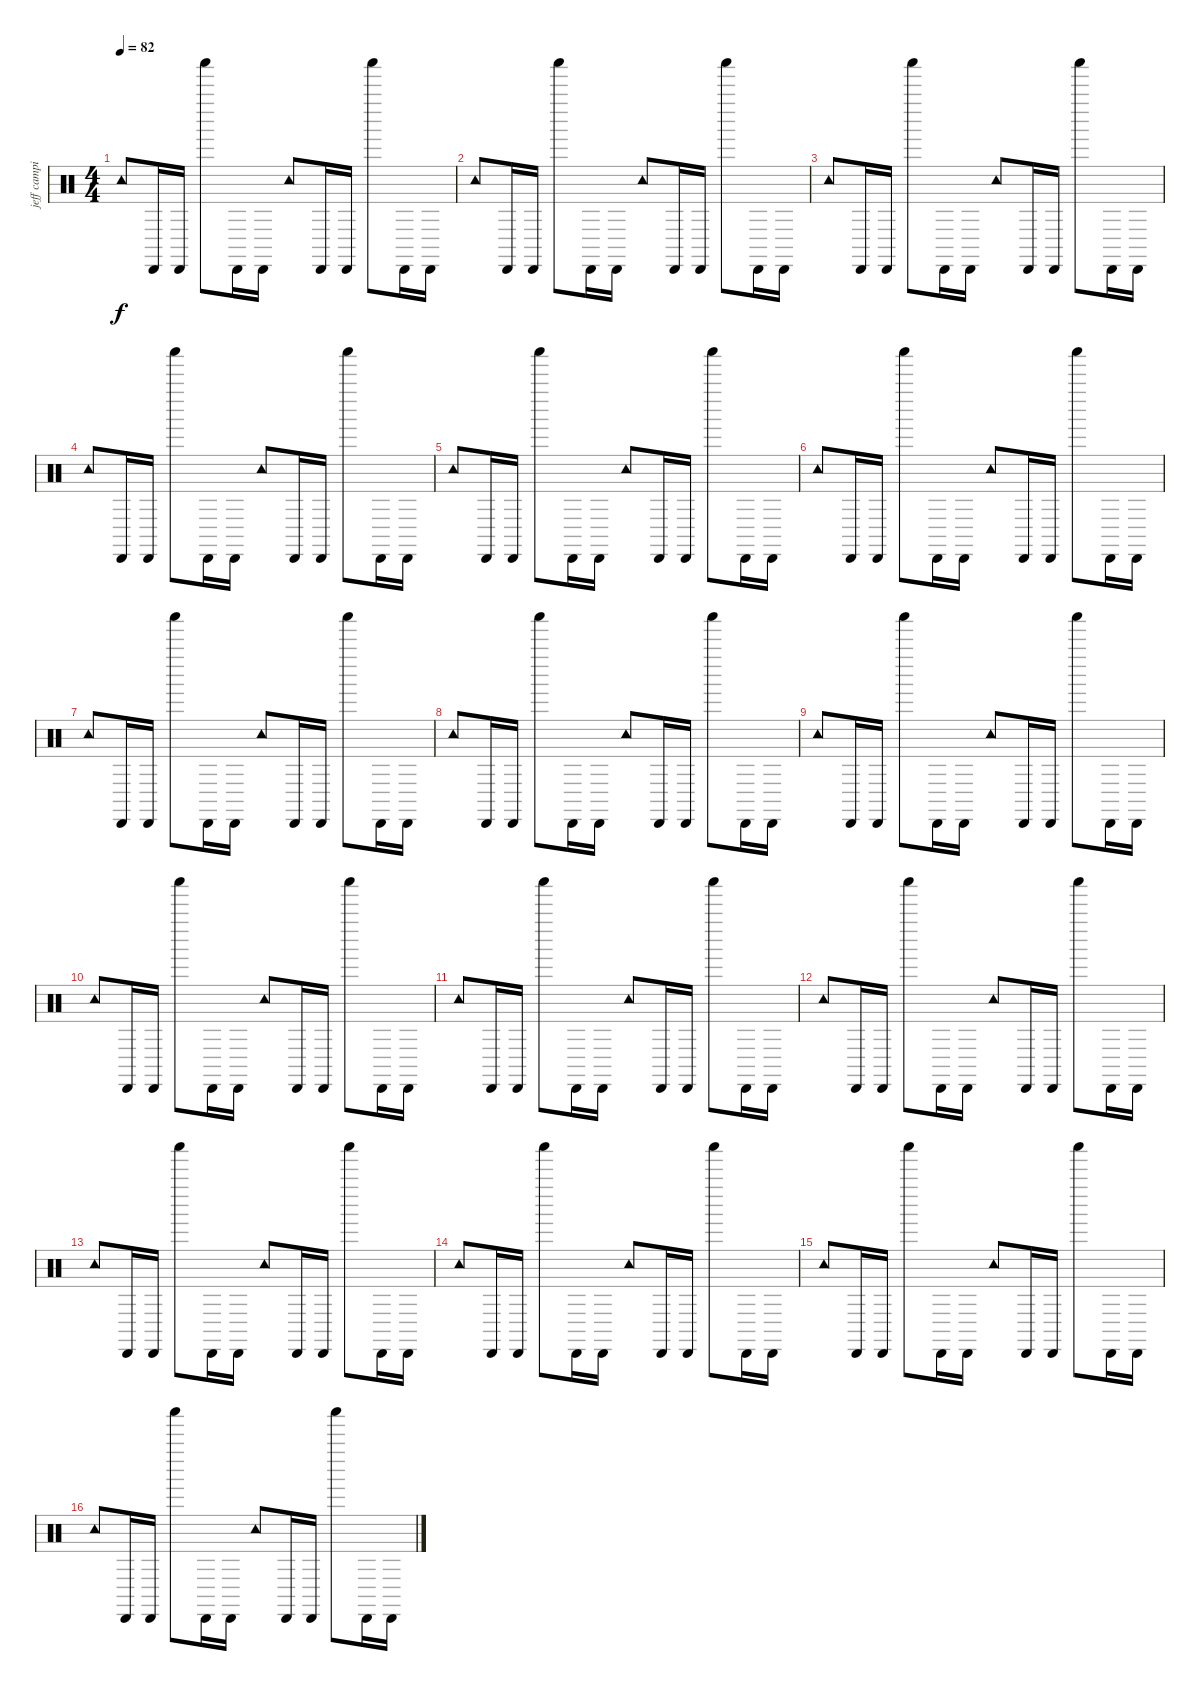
\track ("jeff campitelli" "jeff campi") {instrument percussion}
\staff {score}
\articulation defaults
\ts (4 4)
\tempo 82
\clef neutral
\ks c "Tambourine (hit)".8{dy f} "Cabasa (hit)".16 "Cabasa (hit)".16 "Shaker (hit)".8 "Cabasa (hit)".16 "Cabasa (hit)".16 "Tambourine (hit)".8 "Cabasa (hit)".16 "Cabasa (hit)".16 "Shaker (hit)".8 "Cabasa (hit)".16 "Cabasa (hit)".16
|
"Tambourine (hit)".8 "Cabasa (hit)".16 "Cabasa (hit)".16 "Shaker (hit)".8 "Cabasa (hit)".16 "Cabasa (hit)".16 "Tambourine (hit)".8 "Cabasa (hit)".16 "Cabasa (hit)".16 "Shaker (hit)".8 "Cabasa (hit)".16 "Cabasa (hit)".16 |
"Tambourine (hit)".8 "Cabasa (hit)".16 "Cabasa (hit)".16 "Shaker (hit)".8 "Cabasa (hit)".16 "Cabasa (hit)".16 "Tambourine (hit)".8 "Cabasa (hit)".16 "Cabasa (hit)".16 "Shaker (hit)".8 "Cabasa (hit)".16 "Cabasa (hit)".16 |
"Tambourine (hit)".8 "Cabasa (hit)".16 "Cabasa (hit)".16 "Shaker (hit)".8 "Cabasa (hit)".16 "Cabasa (hit)".16 "Tambourine (hit)".8 "Cabasa (hit)".16 "Cabasa (hit)".16 "Shaker (hit)".8 "Cabasa (hit)".16 "Cabasa (hit)".16 |
"Tambourine (hit)".8 "Cabasa (hit)".16 "Cabasa (hit)".16 "Shaker (hit)".8 "Cabasa (hit)".16 "Cabasa (hit)".16 "Tambourine (hit)".8 "Cabasa (hit)".16 "Cabasa (hit)".16 "Shaker (hit)".8 "Cabasa (hit)".16 "Cabasa (hit)".16 |
"Tambourine (hit)".8 "Cabasa (hit)".16 "Cabasa (hit)".16 "Shaker (hit)".8 "Cabasa (hit)".16 "Cabasa (hit)".16 "Tambourine (hit)".8 "Cabasa (hit)".16 "Cabasa (hit)".16 "Shaker (hit)".8 "Cabasa (hit)".16 "Cabasa (hit)".16 |
"Tambourine (hit)".8 "Cabasa (hit)".16 "Cabasa (hit)".16 "Shaker (hit)".8 "Cabasa (hit)".16 "Cabasa (hit)".16 "Tambourine (hit)".8 "Cabasa (hit)".16 "Cabasa (hit)".16 "Shaker (hit)".8 "Cabasa (hit)".16 "Cabasa (hit)".16 |
"Tambourine (hit)".8 "Cabasa (hit)".16 "Cabasa (hit)".16 "Shaker (hit)".8 "Cabasa (hit)".16 "Cabasa (hit)".16 "Tambourine (hit)".8 "Cabasa (hit)".16 "Cabasa (hit)".16 "Shaker (hit)".8 "Cabasa (hit)".16 "Cabasa (hit)".16 |
"Tambourine (hit)".8 "Cabasa (hit)".16 "Cabasa (hit)".16 "Shaker (hit)".8 "Cabasa (hit)".16 "Cabasa (hit)".16 "Tambourine (hit)".8 "Cabasa (hit)".16 "Cabasa (hit)".16 "Shaker (hit)".8 "Cabasa (hit)".16 "Cabasa (hit)".16 |
"Tambourine (hit)".8 "Cabasa (hit)".16 "Cabasa (hit)".16 "Shaker (hit)".8 "Cabasa (hit)".16 "Cabasa (hit)".16 "Tambourine (hit)".8 "Cabasa (hit)".16 "Cabasa (hit)".16 "Shaker (hit)".8 "Cabasa (hit)".16 "Cabasa (hit)".16 |
"Tambourine (hit)".8 "Cabasa (hit)".16 "Cabasa (hit)".16 "Shaker (hit)".8 "Cabasa (hit)".16 "Cabasa (hit)".16 "Tambourine (hit)".8 "Cabasa (hit)".16 "Cabasa (hit)".16 "Shaker (hit)".8 "Cabasa (hit)".16 "Cabasa (hit)".16 |
"Tambourine (hit)".8 "Cabasa (hit)".16 "Cabasa (hit)".16 "Shaker (hit)".8 "Cabasa (hit)".16 "Cabasa (hit)".16 "Tambourine (hit)".8 "Cabasa (hit)".16 "Cabasa (hit)".16 "Shaker (hit)".8 "Cabasa (hit)".16 "Cabasa (hit)".16 |
"Tambourine (hit)".8 "Cabasa (hit)".16 "Cabasa (hit)".16 "Shaker (hit)".8 "Cabasa (hit)".16 "Cabasa (hit)".16 "Tambourine (hit)".8 "Cabasa (hit)".16 "Cabasa (hit)".16 "Shaker (hit)".8 "Cabasa (hit)".16 "Cabasa (hit)".16 |
"Tambourine (hit)".8 "Cabasa (hit)".16 "Cabasa (hit)".16 "Shaker (hit)".8 "Cabasa (hit)".16 "Cabasa (hit)".16 "Tambourine (hit)".8 "Cabasa (hit)".16 "Cabasa (hit)".16 "Shaker (hit)".8 "Cabasa (hit)".16 "Cabasa (hit)".16 |
"Tambourine (hit)".8 "Cabasa (hit)".16 "Cabasa (hit)".16 "Shaker (hit)".8 "Cabasa (hit)".16 "Cabasa (hit)".16 "Tambourine (hit)".8 "Cabasa (hit)".16 "Cabasa (hit)".16 "Shaker (hit)".8 "Cabasa (hit)".16 "Cabasa (hit)".16 |
"Tambourine (hit)".8 "Cabasa (hit)".16 "Cabasa (hit)".16 "Shaker (hit)".8 "Cabasa (hit)".16 "Cabasa (hit)".16 "Tambourine (hit)".8 "Cabasa (hit)".16 "Cabasa (hit)".16 "Shaker (hit)".8 "Cabasa (hit)".16 "Cabasa (hit)".16
